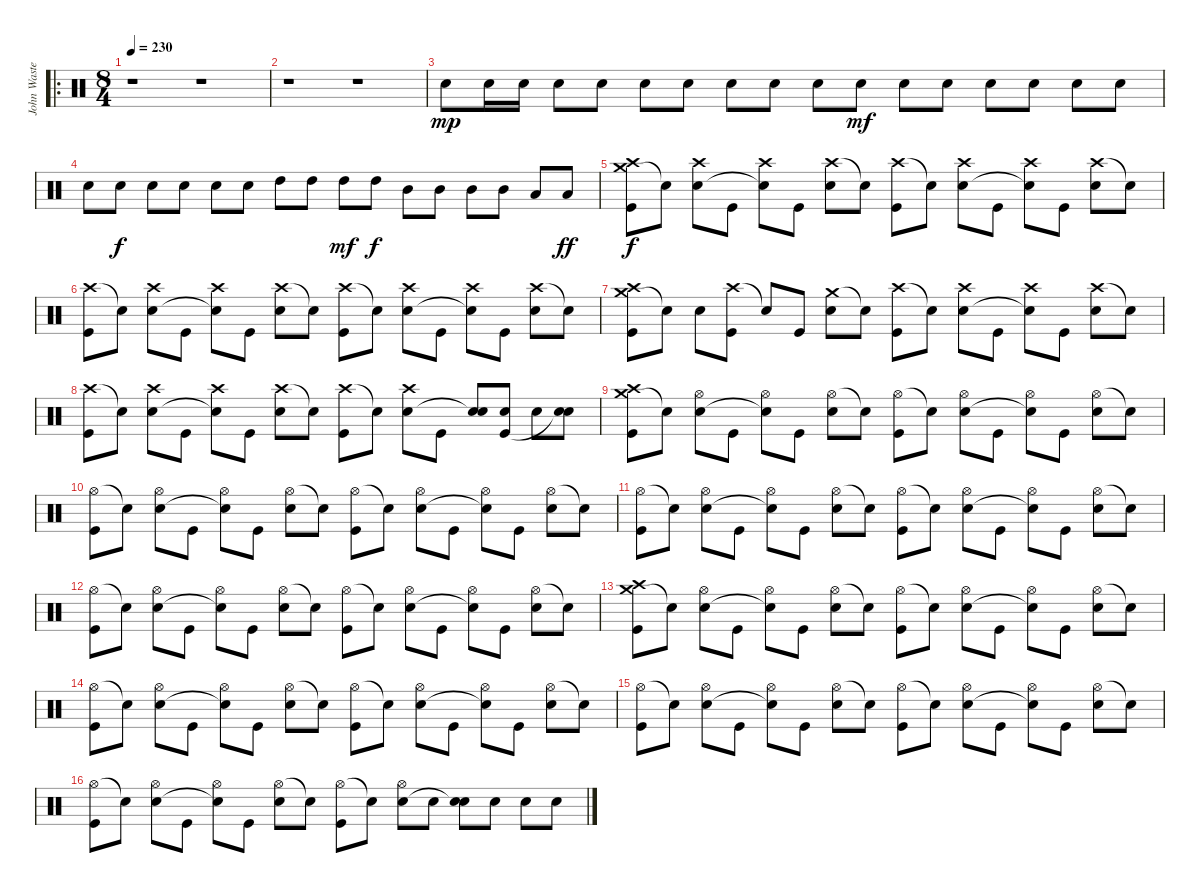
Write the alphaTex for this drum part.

\track ("John Wasted" "John Waste") {instrument percussion}
\staff {score}
\articulation defaults
\ro
\ts (8 4)
\tempo 230
\clef neutral
\ks c
r.1{dy mp} r.1 |
r.1 r.1 |
"Snare (hit) 2".8 "Snare (hit) 2".16 "Snare (hit) 2".16 "Snare (hit) 2".8 "Snare (hit) 2".8 "Snare (hit) 2".8 "Snare (hit) 2".8 "Snare (hit) 2".8 "Snare (hit) 2".8 "Snare (hit) 2".8 "Snare (hit) 2".8{dy mf} "Snare (hit) 2".8 "Snare (hit) 2".8 "Snare (hit) 2".8 "Snare (hit) 2".8 "Snare (hit) 2".8 "Snare (hit) 2".8 |
"Snare (hit) 2".8 "Snare (hit) 2".8{dy f} "Snare (hit) 2".8 "Snare (hit) 2".8 "Snare (hit) 2".8 "Snare (hit) 2".8 "High Tom (hit)".8 "High Tom (hit)".8 "High Tom (hit)".8{dy mf} "High Tom (hit)".8{dy f} "Mid Tom (hit)".8 "Mid Tom (hit)".8 "Mid Tom (hit)".8 "Mid Tom (hit)".8 "Low Tom (hit)".8 "Low Tom (hit)".8{dy ff} |
("Crash medium (hit)" "Crash high (hit)" "Kick (hit)").8{dy f} "Snare (hit)"{t}.8 ("Crash high (hit)" "Snare (hit) 2").8 "Kick (hit)".8 ("Crash high (hit)" "Snare (hit)"{t}).8 "Kick (hit)".8 ("Crash high (hit)" "Snare (hit) 2").8 "Snare (hit)"{t}.8 ("Crash high (hit)" "Kick (hit)").8 "Snare (hit)"{t}.8 ("Crash high (hit)" "Snare (hit) 2").8 "Kick (hit)".8 ("Crash high (hit)" "Snare (hit)"{t}).8 "Kick (hit)".8 ("Crash high (hit)" "Snare (hit) 2").8 "Snare (hit)"{t}.8 |
("Crash high (hit)" "Kick (hit)").8 "Snare (hit)"{t}.8 ("Crash high (hit)" "Snare (hit) 2").8 "Kick (hit)".8 ("Crash high (hit)" "Snare (hit)"{t}).8 "Kick (hit)".8 ("Crash high (hit)" "Snare (hit) 2").8 "Snare (hit)"{t}.8 ("Crash high (hit)" "Kick (hit)").8 "Snare (hit)"{t}.8 ("Crash high (hit)" "Snare (hit) 2").8 "Kick (hit)".8 ("Crash high (hit)" "Snare (hit)"{t}).8 "Kick (hit)".8 ("Crash high (hit)" "Snare (hit) 2").8 "Snare (hit)"{t}.8 |
("Crash medium (hit)" "Crash high (hit)" "Kick (hit)").8 "Snare (hit)"{t}.8 "Snare (hit) 2".8 ("Crash high (hit)" "Kick (hit)").8 "Snare (hit)"{t}.8 "Kick (hit)".8 ("Crash medium (hit)" "Snare (hit) 2").8 "Snare (hit)"{t}.8 ("Crash high (hit)" "Kick (hit)").8 "Snare (hit)"{t}.8 ("Crash high (hit)" "Snare (hit) 2").8 "Kick (hit)".8 ("Crash high (hit)" "Snare (hit)"{t}).8 "Kick (hit)".8 ("Crash high (hit)" "Snare (hit) 2").8 "Snare (hit)"{t}.8 |
("Crash high (hit)" "Kick (hit)").8 "Snare (hit)"{t}.8 ("Crash high (hit)" "Snare (hit) 2").8 "Kick (hit)".8 ("Crash high (hit)" "Snare (hit)"{t}).8 "Kick (hit)".8 ("Crash high (hit)" "Snare (hit) 2").8 "Snare (hit)"{t}.8 ("Crash high (hit)" "Kick (hit)").8 "Snare (hit)"{t}.8 ("Crash high (hit)" "Snare (hit) 2").8 "Kick (hit)".8 ("Snare (hit) 2" "Snare (hit)"{t}).8 ("Snare (hit) 2" "Kick (hit)").8 "Snare (hit) 2".8 ("Snare (hit) 2" "Snare (hit)"{t}).8 |
("Crash medium (hit)" "Crash high (hit)" "Kick (hit)").8 "Snare (hit)"{t}.8 ("Hi-Hat (open)" "Snare (hit) 2").8 "Kick (hit)".8 ("Hi-Hat (open)" "Snare (hit)"{t}).8 "Kick (hit)".8 ("Hi-Hat (open)" "Snare (hit) 2").8 "Snare (hit)"{t}.8 ("Hi-Hat (open)" "Kick (hit)").8 "Snare (hit)"{t}.8 ("Hi-Hat (open)" "Snare (hit) 2").8 "Kick (hit)".8 ("Hi-Hat (open)" "Snare (hit)"{t}).8 "Kick (hit)".8 ("Hi-Hat (open)" "Snare (hit) 2").8 "Snare (hit)"{t}.8 |
("Hi-Hat (open)" "Kick (hit)").8 "Snare (hit)"{t}.8 ("Hi-Hat (open)" "Snare (hit) 2").8 "Kick (hit)".8 ("Hi-Hat (open)" "Snare (hit)"{t}).8 "Kick (hit)".8 ("Hi-Hat (open)" "Snare (hit) 2").8 "Snare (hit)"{t}.8 ("Hi-Hat (open)" "Kick (hit)").8 "Snare (hit)"{t}.8 ("Hi-Hat (open)" "Snare (hit) 2").8 "Kick (hit)".8 ("Hi-Hat (open)" "Snare (hit)"{t}).8 "Kick (hit)".8 ("Hi-Hat (open)" "Snare (hit) 2").8 "Snare (hit)"{t}.8 |
("Hi-Hat (open)" "Kick (hit)").8 "Snare (hit)"{t}.8 ("Hi-Hat (open)" "Snare (hit) 2").8 "Kick (hit)".8 ("Hi-Hat (open)" "Snare (hit)"{t}).8 "Kick (hit)".8 ("Hi-Hat (open)" "Snare (hit) 2").8 "Snare (hit)"{t}.8 ("Hi-Hat (open)" "Kick (hit)").8 "Snare (hit)"{t}.8 ("Hi-Hat (open)" "Snare (hit) 2").8 "Kick (hit)".8 ("Hi-Hat (open)" "Snare (hit)"{t}).8 "Kick (hit)".8 ("Hi-Hat (open)" "Snare (hit) 2").8 "Snare (hit)"{t}.8 |
("Hi-Hat (open)" "Kick (hit)").8 "Snare (hit)"{t}.8 ("Hi-Hat (open)" "Snare (hit) 2").8 "Kick (hit)".8 ("Hi-Hat (open)" "Snare (hit)"{t}).8 "Kick (hit)".8 ("Hi-Hat (open)" "Snare (hit) 2").8 "Snare (hit)"{t}.8 ("Hi-Hat (open)" "Kick (hit)").8 "Snare (hit)"{t}.8 ("Hi-Hat (open)" "Snare (hit) 2").8 "Kick (hit)".8 ("Hi-Hat (open)" "Snare (hit)"{t}).8 "Kick (hit)".8 ("Hi-Hat (open)" "Snare (hit) 2").8 "Snare (hit)"{t}.8 |
("Crash medium (hit)" "Crash high (hit)" "Kick (hit)").8 "Snare (hit)"{t}.8 ("Hi-Hat (open)" "Snare (hit) 2").8 "Kick (hit)".8 ("Hi-Hat (open)" "Snare (hit)"{t}).8 "Kick (hit)".8 ("Hi-Hat (open)" "Snare (hit) 2").8 "Snare (hit)"{t}.8 ("Hi-Hat (open)" "Kick (hit)").8 "Snare (hit)"{t}.8 ("Hi-Hat (open)" "Snare (hit) 2").8 "Kick (hit)".8 ("Hi-Hat (open)" "Snare (hit)"{t}).8 "Kick (hit)".8 ("Hi-Hat (open)" "Snare (hit) 2").8 "Snare (hit)"{t}.8 |
("Hi-Hat (open)" "Kick (hit)").8 "Snare (hit)"{t}.8 ("Hi-Hat (open)" "Snare (hit) 2").8 "Kick (hit)".8 ("Hi-Hat (open)" "Snare (hit)"{t}).8 "Kick (hit)".8 ("Hi-Hat (open)" "Snare (hit) 2").8 "Snare (hit)"{t}.8 ("Hi-Hat (open)" "Kick (hit)").8 "Snare (hit)"{t}.8 ("Hi-Hat (open)" "Snare (hit) 2").8 "Kick (hit)".8 ("Hi-Hat (open)" "Snare (hit)"{t}).8 "Kick (hit)".8 ("Hi-Hat (open)" "Snare (hit) 2").8 "Snare (hit)"{t}.8 |
("Hi-Hat (open)" "Kick (hit)").8 "Snare (hit)"{t}.8 ("Hi-Hat (open)" "Snare (hit) 2").8 "Kick (hit)".8 ("Hi-Hat (open)" "Snare (hit)"{t}).8 "Kick (hit)".8 ("Hi-Hat (open)" "Snare (hit) 2").8 "Snare (hit)"{t}.8 ("Hi-Hat (open)" "Kick (hit)").8 "Snare (hit)"{t}.8 ("Hi-Hat (open)" "Snare (hit) 2").8 "Kick (hit)".8 ("Hi-Hat (open)" "Snare (hit)"{t}).8 "Kick (hit)".8 ("Hi-Hat (open)" "Snare (hit) 2").8 "Snare (hit)"{t}.8 |
("Hi-Hat (open)" "Kick (hit)").8 "Snare (hit)"{t}.8 ("Hi-Hat (open)" "Snare (hit) 2").8 "Kick (hit)".8 ("Hi-Hat (open)" "Snare (hit)"{t}).8 "Kick (hit)".8 ("Hi-Hat (open)" "Snare (hit) 2").8 "Snare (hit)"{t}.8 ("Hi-Hat (open)" "Kick (hit)").8 "Snare (hit)"{t}.8 ("Hi-Hat (open)" "Snare (hit) 2").8 "Snare (hit) 2".8 ("Snare (hit) 2" "Snare (hit)"{t}).8 "Snare (hit) 2".8 "Snare (hit) 2".8 "Snare (hit) 2".8
